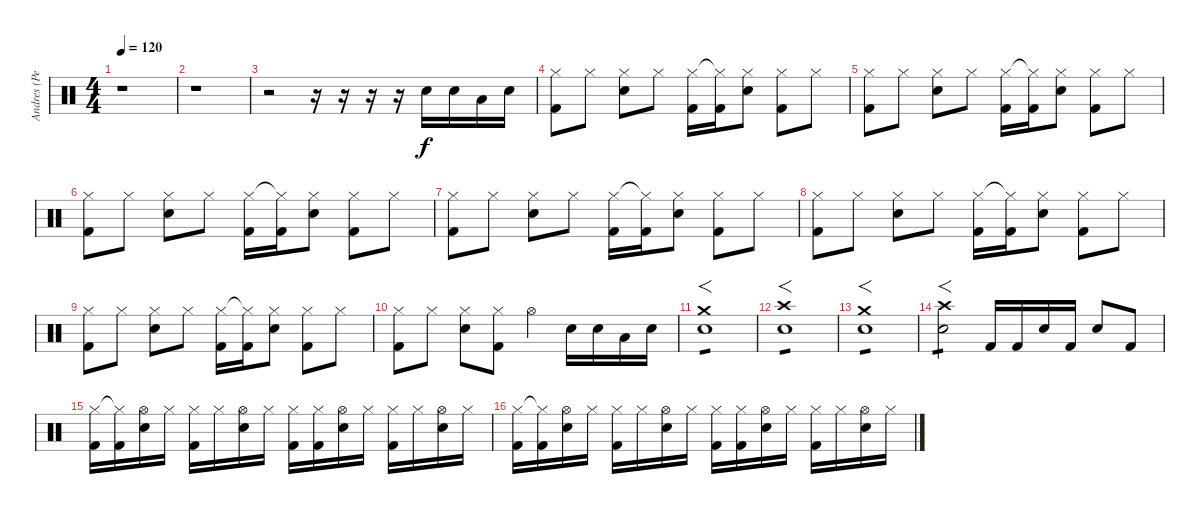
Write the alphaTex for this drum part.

\track ("Andres (Percussion)" "Andres (Pe") {instrument percussion}
\staff {score}
\articulation defaults
\ts (4 4)
\tempo 120
\clef neutral
\ks c
r.1{dy f} |
r.1 |
r.2 r.16 r.16 r.16 r.16 "Electric Snare (hit)".16 "Electric Snare (hit)".16 "Low Tom (hit)".16 "Electric Snare (hit)".16 |
("Hi-Hat (closed)" "Kick (hit) 2").8 "Hi-Hat (closed)".8 ("Hi-Hat (closed)" "Electric Snare (hit)").8 "Hi-Hat (closed)".8 ("Hi-Hat (closed)" "Kick (hit) 2").16 ("Hi-Hat (closed)"{t} "Kick (hit) 2").16 ("Hi-Hat (closed)" "Electric Snare (hit)").8 ("Hi-Hat (closed)" "Kick (hit) 2").8 "Hi-Hat (closed)".8 |
("Hi-Hat (closed)" "Kick (hit) 2").8 "Hi-Hat (closed)".8 ("Hi-Hat (closed)" "Electric Snare (hit)").8 "Hi-Hat (closed)".8 ("Hi-Hat (closed)" "Kick (hit) 2").16 ("Hi-Hat (closed)"{t} "Kick (hit) 2").16 ("Hi-Hat (closed)" "Electric Snare (hit)").8 ("Hi-Hat (closed)" "Kick (hit) 2").8 "Hi-Hat (closed)".8 |
("Hi-Hat (closed)" "Kick (hit) 2").8 "Hi-Hat (closed)".8 ("Hi-Hat (closed)" "Electric Snare (hit)").8 "Hi-Hat (closed)".8 ("Hi-Hat (closed)" "Kick (hit) 2").16 ("Hi-Hat (closed)"{t} "Kick (hit) 2").16 ("Hi-Hat (closed)" "Electric Snare (hit)").8 ("Hi-Hat (closed)" "Kick (hit) 2").8 "Hi-Hat (closed)".8 |
("Hi-Hat (closed)" "Kick (hit) 2").8 "Hi-Hat (closed)".8 ("Hi-Hat (closed)" "Electric Snare (hit)").8 "Hi-Hat (closed)".8 ("Hi-Hat (closed)" "Kick (hit) 2").16 ("Hi-Hat (closed)"{t} "Kick (hit) 2").16 ("Hi-Hat (closed)" "Electric Snare (hit)").8 ("Hi-Hat (closed)" "Kick (hit) 2").8 "Hi-Hat (closed)".8 |
("Hi-Hat (closed)" "Kick (hit) 2").8 "Hi-Hat (closed)".8 ("Hi-Hat (closed)" "Electric Snare (hit)").8 "Hi-Hat (closed)".8 ("Hi-Hat (closed)" "Kick (hit) 2").16 ("Hi-Hat (closed)"{t} "Kick (hit) 2").16 ("Hi-Hat (closed)" "Electric Snare (hit)").8 ("Hi-Hat (closed)" "Kick (hit) 2").8 "Hi-Hat (closed)".8 |
("Hi-Hat (closed)" "Kick (hit) 2").8 "Hi-Hat (closed)".8 ("Hi-Hat (closed)" "Electric Snare (hit)").8 "Hi-Hat (closed)".8 ("Hi-Hat (closed)" "Kick (hit) 2").16 ("Hi-Hat (closed)"{t} "Kick (hit) 2").16 ("Hi-Hat (closed)" "Electric Snare (hit)").8 ("Hi-Hat (closed)" "Kick (hit) 2").8 "Hi-Hat (closed)".8 |
("Hi-Hat (closed)" "Kick (hit) 2").8 "Hi-Hat (closed)".8 ("Hi-Hat (closed)" "Electric Snare (hit)").8 ("Hi-Hat (closed)" "Kick (hit) 2").8 "Hi-Hat (open)".4 "Electric Snare (hit)".16 "Electric Snare (hit)".16 "Low Tom (hit)".16 "Electric Snare (hit)".16 |
("Crash medium (hit)" "Electric Snare (hit)").1{f tp 1} |
("Crash high (hit)" "Electric Snare (hit)").1{f tp 1} |
("Crash medium (hit)" "Electric Snare (hit)").1{f tp 1} |
("Crash high (hit)" "Electric Snare (hit)").2{f tp 1} "Kick (hit) 2".16 "Kick (hit) 2".16 "Electric Snare (hit)".16 "Kick (hit) 2".16 "Electric Snare (hit)".8 "Kick (hit) 2".8 |
("Hi-Hat (closed)" "Kick (hit) 2").16 ("Hi-Hat (closed)"{t} "Kick (hit) 2").16 ("Hi-Hat (open)" "Electric Snare (hit)").16 "Hi-Hat (closed)".16 ("Hi-Hat (closed)" "Kick (hit) 2").16 "Hi-Hat (closed)".16 ("Hi-Hat (open)" "Electric Snare (hit)").16 "Hi-Hat (closed)".16 ("Hi-Hat (closed)" "Kick (hit) 2").16 ("Hi-Hat (closed)" "Kick (hit) 2").16 ("Hi-Hat (open)" "Electric Snare (hit)").16 "Hi-Hat (closed)".16 ("Hi-Hat (closed)" "Kick (hit) 2").16 "Hi-Hat (closed)".16 ("Hi-Hat (open)" "Electric Snare (hit)").16 "Hi-Hat (closed)".16 |
("Hi-Hat (closed)" "Kick (hit) 2").16 ("Hi-Hat (closed)"{t} "Kick (hit) 2").16 ("Hi-Hat (open)" "Electric Snare (hit)").16 "Hi-Hat (closed)".16 ("Hi-Hat (closed)" "Kick (hit) 2").16 "Hi-Hat (closed)".16 ("Hi-Hat (open)" "Electric Snare (hit)").16 "Hi-Hat (closed)".16 ("Hi-Hat (closed)" "Kick (hit) 2").16 ("Hi-Hat (closed)" "Kick (hit) 2").16 ("Hi-Hat (open)" "Electric Snare (hit)").16 "Hi-Hat (closed)".16 ("Hi-Hat (closed)" "Kick (hit) 2").16 "Hi-Hat (closed)".16 ("Hi-Hat (open)" "Electric Snare (hit)").16 "Hi-Hat (closed)".16
